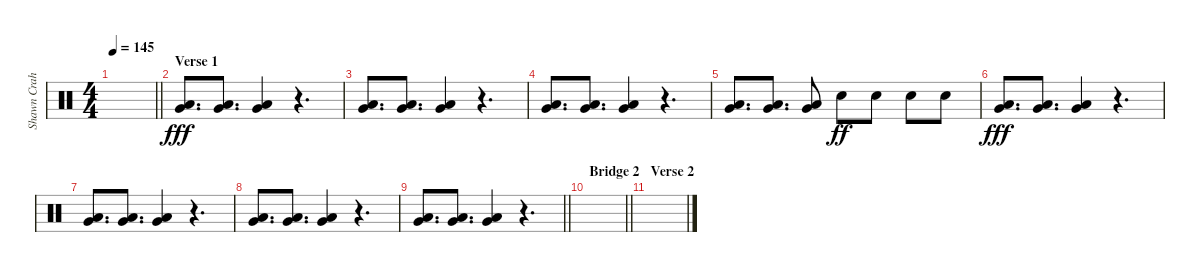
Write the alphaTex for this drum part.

\track ("Shawn Crahan" "Shawn Crah") {instrument percussion}
\staff {score}
\articulation defaults
\ts (4 4)
\tempo 145
\clef neutral
\barLineRight lightlight
\ks c
|
\section ("" "Verse 1")
("Very Low Tom (hit)" "Low Floor Tom (hit)").8{d dy fff} ("Very Low Tom (hit)" "Low Floor Tom (hit)").8{d} ("Very Low Tom (hit)" "Low Floor Tom (hit)").4 r.4{d} |
("Very Low Tom (hit)" "Low Floor Tom (hit)").8{d} ("Very Low Tom (hit)" "Low Floor Tom (hit)").8{d} ("Very Low Tom (hit)" "Low Floor Tom (hit)").4 r.4{d} |
("Very Low Tom (hit)" "Low Floor Tom (hit)").8{d} ("Very Low Tom (hit)" "Low Floor Tom (hit)").8{d} ("Very Low Tom (hit)" "Low Floor Tom (hit)").4 r.4{d} |
("Very Low Tom (hit)" "Low Floor Tom (hit)").8{d} ("Very Low Tom (hit)" "Low Floor Tom (hit)").8{d} ("Very Low Tom (hit)" "Low Floor Tom (hit)").8 "Hand Clap (hit)".8{dy ff} "Hand Clap (hit)".8 "Hand Clap (hit)".8 "Hand Clap (hit)".8 |
("Very Low Tom (hit)" "Low Floor Tom (hit)").8{d dy fff} ("Very Low Tom (hit)" "Low Floor Tom (hit)").8{d} ("Very Low Tom (hit)" "Low Floor Tom (hit)").4 r.4{d} |
("Very Low Tom (hit)" "Low Floor Tom (hit)").8{d} ("Very Low Tom (hit)" "Low Floor Tom (hit)").8{d} ("Very Low Tom (hit)" "Low Floor Tom (hit)").4 r.4{d} |
("Very Low Tom (hit)" "Low Floor Tom (hit)").8{d} ("Very Low Tom (hit)" "Low Floor Tom (hit)").8{d} ("Very Low Tom (hit)" "Low Floor Tom (hit)").4 r.4{d} |
\barLineRight lightlight
("Very Low Tom (hit)" "Low Floor Tom (hit)").8{d} ("Very Low Tom (hit)" "Low Floor Tom (hit)").8{d} ("Very Low Tom (hit)" "Low Floor Tom (hit)").4 r.4{d} |
\section ("" "Bridge 2")
\barLineRight lightlight
|
\section ("" "Verse 2")
